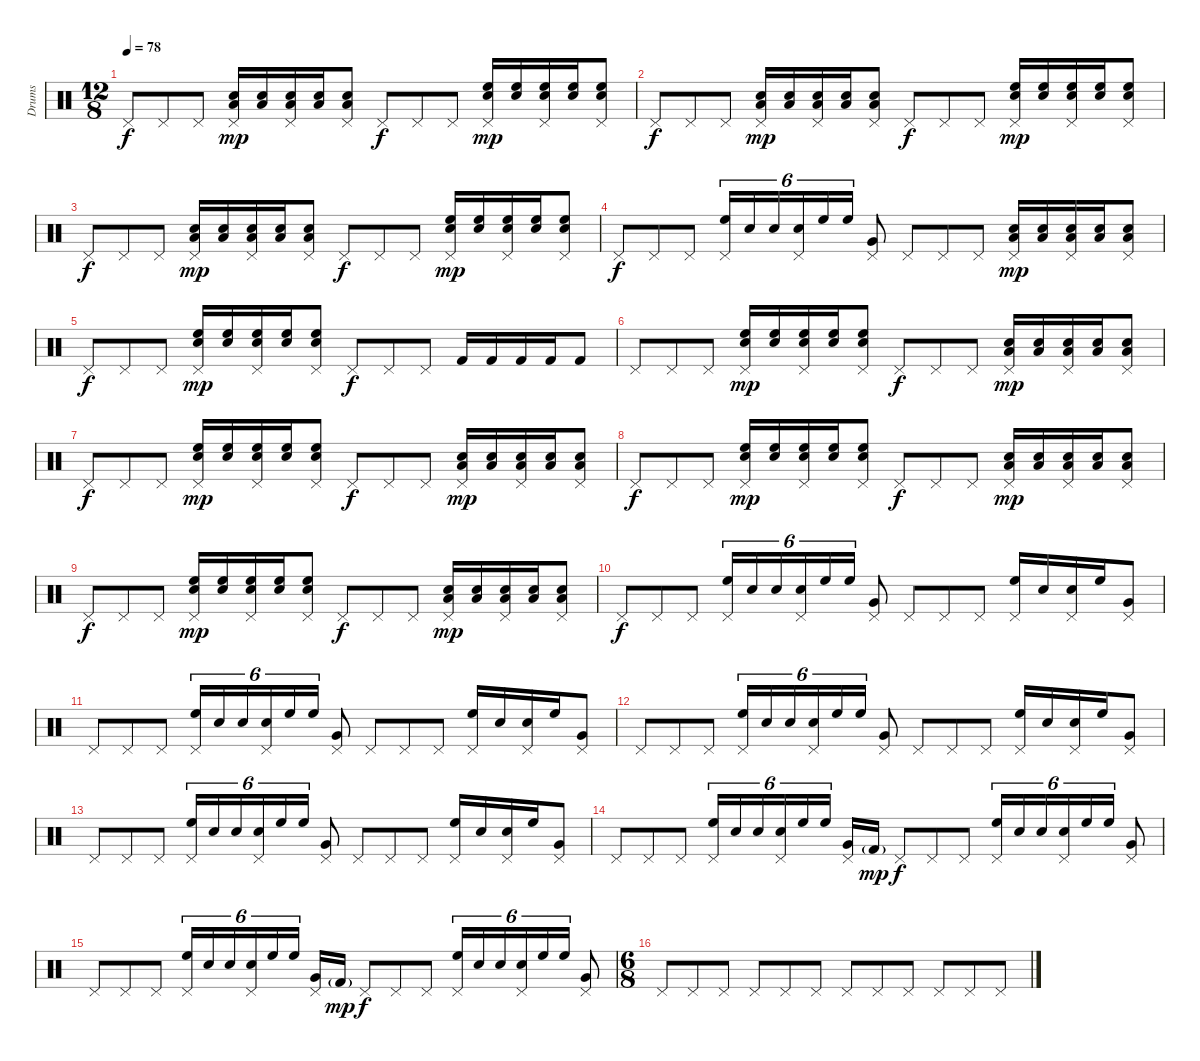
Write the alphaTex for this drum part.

\track ("Drums" "Drums") {instrument percussion}
\staff {score}
\articulation defaults
\ts (12 8)
\tempo 78
\clef neutral
\ks c "Pedal Hi-Hat (hit)".8{dy f} "Pedal Hi-Hat (hit)".8 "Pedal Hi-Hat (hit)".8
("Pedal Hi-Hat (hit)" "Low Floor Tom (hit)" "Snare (hit) 2").16{dy mp} ("Low Floor Tom (hit)" "Snare (hit) 2").16 ("Pedal Hi-Hat (hit)" "Low Floor Tom (hit)" "Snare (hit) 2").16 ("Low Floor Tom (hit)" "Snare (hit) 2").16 ("Pedal Hi-Hat (hit)" "Low Floor Tom (hit)" "Snare (hit) 2").8 "Pedal Hi-Hat (hit)".8{dy f} "Pedal Hi-Hat (hit)".8 "Pedal Hi-Hat (hit)".8 ("Pedal Hi-Hat (hit)" "High Floor Tom (hit)" "Snare (hit) 2").16{dy mp} ("High Floor Tom (hit)" "Snare (hit) 2").16 ("Pedal Hi-Hat (hit)" "High Floor Tom (hit)" "Snare (hit) 2").16 ("High Floor Tom (hit)" "Snare (hit) 2").16 ("Pedal Hi-Hat (hit)" "High Floor Tom (hit)" "Snare (hit) 2").8 |
"Pedal Hi-Hat (hit)".8{dy f} "Pedal Hi-Hat (hit)".8 "Pedal Hi-Hat (hit)".8 ("Pedal Hi-Hat (hit)" "Low Floor Tom (hit)" "Snare (hit) 2").16{dy mp} ("Low Floor Tom (hit)" "Snare (hit) 2").16 ("Pedal Hi-Hat (hit)" "Low Floor Tom (hit)" "Snare (hit) 2").16 ("Low Floor Tom (hit)" "Snare (hit) 2").16 ("Pedal Hi-Hat (hit)" "Low Floor Tom (hit)" "Snare (hit) 2").8 "Pedal Hi-Hat (hit)".8{dy f} "Pedal Hi-Hat (hit)".8 "Pedal Hi-Hat (hit)".8 ("Pedal Hi-Hat (hit)" "High Floor Tom (hit)" "Snare (hit) 2").16{dy mp} ("High Floor Tom (hit)" "Snare (hit) 2").16 ("Pedal Hi-Hat (hit)" "High Floor Tom (hit)" "Snare (hit) 2").16 ("High Floor Tom (hit)" "Snare (hit) 2").16 ("Pedal Hi-Hat (hit)" "High Floor Tom (hit)" "Snare (hit) 2").8 |
"Pedal Hi-Hat (hit)".8{dy f} "Pedal Hi-Hat (hit)".8 "Pedal Hi-Hat (hit)".8 ("Pedal Hi-Hat (hit)" "Low Floor Tom (hit)" "Snare (hit) 2").16{dy mp} ("Low Floor Tom (hit)" "Snare (hit) 2").16 ("Pedal Hi-Hat (hit)" "Low Floor Tom (hit)" "Snare (hit) 2").16 ("Low Floor Tom (hit)" "Snare (hit) 2").16 ("Pedal Hi-Hat (hit)" "Low Floor Tom (hit)" "Snare (hit) 2").8 "Pedal Hi-Hat (hit)".8{dy f} "Pedal Hi-Hat (hit)".8 "Pedal Hi-Hat (hit)".8 ("Pedal Hi-Hat (hit)" "High Floor Tom (hit)" "Snare (hit) 2").16{dy mp} ("High Floor Tom (hit)" "Snare (hit) 2").16 ("Pedal Hi-Hat (hit)" "High Floor Tom (hit)" "Snare (hit) 2").16 ("High Floor Tom (hit)" "Snare (hit) 2").16 ("Pedal Hi-Hat (hit)" "High Floor Tom (hit)" "Snare (hit) 2").8 |
"Pedal Hi-Hat (hit)".8{dy f} "Pedal Hi-Hat (hit)".8 "Pedal Hi-Hat (hit)".8 ("Pedal Hi-Hat (hit)" "High Floor Tom (hit)").16{tu (6 4)} "Snare (hit) 2".16{tu (6 4)} "Snare (hit) 2".16{tu (6 4)} ("Pedal Hi-Hat (hit)" "Snare (hit) 2").16{tu (6 4)} "High Floor Tom (hit)".16{tu (6 4)} "High Floor Tom (hit)".16{tu (6 4)} ("Pedal Hi-Hat (hit)" "Very Low Tom (hit)").8 "Pedal Hi-Hat (hit)".8 "Pedal Hi-Hat (hit)".8 "Pedal Hi-Hat (hit)".8 ("Pedal Hi-Hat (hit)" "Low Floor Tom (hit)" "Snare (hit) 2").16{dy mp} ("Low Floor Tom (hit)" "Snare (hit) 2").16 ("Pedal Hi-Hat (hit)" "Low Floor Tom (hit)" "Snare (hit) 2").16 ("Low Floor Tom (hit)" "Snare (hit) 2").16 ("Pedal Hi-Hat (hit)" "Low Floor Tom (hit)" "Snare (hit) 2").8 |
"Pedal Hi-Hat (hit)".8{dy f} "Pedal Hi-Hat (hit)".8 "Pedal Hi-Hat (hit)".8 ("Pedal Hi-Hat (hit)" "High Floor Tom (hit)" "Snare (hit) 2").16{dy mp} ("High Floor Tom (hit)" "Snare (hit) 2").16 ("Pedal Hi-Hat (hit)" "High Floor Tom (hit)" "Snare (hit) 2").16 ("High Floor Tom (hit)" "Snare (hit) 2").16 ("Pedal Hi-Hat (hit)" "High Floor Tom (hit)" "Snare (hit) 2").8 "Pedal Hi-Hat (hit)".8{dy f} "Pedal Hi-Hat (hit)".8 "Pedal Hi-Hat (hit)".8 "Kick (hit) 2".16 "Kick (hit) 2".16 "Kick (hit) 2".16 "Kick (hit) 2".16 "Kick (hit) 2".8 |
"Pedal Hi-Hat (hit)".8 "Pedal Hi-Hat (hit)".8 "Pedal Hi-Hat (hit)".8 ("Pedal Hi-Hat (hit)" "High Floor Tom (hit)" "Snare (hit) 2").16{dy mp} ("High Floor Tom (hit)" "Snare (hit) 2").16 ("Pedal Hi-Hat (hit)" "High Floor Tom (hit)" "Snare (hit) 2").16 ("High Floor Tom (hit)" "Snare (hit) 2").16 ("Pedal Hi-Hat (hit)" "High Floor Tom (hit)" "Snare (hit) 2").8 "Pedal Hi-Hat (hit)".8{dy f} "Pedal Hi-Hat (hit)".8 "Pedal Hi-Hat (hit)".8 ("Pedal Hi-Hat (hit)" "Low Floor Tom (hit)" "Snare (hit) 2").16{dy mp} ("Low Floor Tom (hit)" "Snare (hit) 2").16 ("Pedal Hi-Hat (hit)" "Low Floor Tom (hit)" "Snare (hit) 2").16 ("Low Floor Tom (hit)" "Snare (hit) 2").16 ("Pedal Hi-Hat (hit)" "Low Floor Tom (hit)" "Snare (hit) 2").8 |
"Pedal Hi-Hat (hit)".8{dy f} "Pedal Hi-Hat (hit)".8 "Pedal Hi-Hat (hit)".8 ("Pedal Hi-Hat (hit)" "High Floor Tom (hit)" "Snare (hit) 2").16{dy mp} ("High Floor Tom (hit)" "Snare (hit) 2").16 ("Pedal Hi-Hat (hit)" "High Floor Tom (hit)" "Snare (hit) 2").16 ("High Floor Tom (hit)" "Snare (hit) 2").16 ("Pedal Hi-Hat (hit)" "High Floor Tom (hit)" "Snare (hit) 2").8 "Pedal Hi-Hat (hit)".8{dy f} "Pedal Hi-Hat (hit)".8 "Pedal Hi-Hat (hit)".8 ("Pedal Hi-Hat (hit)" "Low Floor Tom (hit)" "Snare (hit) 2").16{dy mp} ("Low Floor Tom (hit)" "Snare (hit) 2").16 ("Pedal Hi-Hat (hit)" "Low Floor Tom (hit)" "Snare (hit) 2").16 ("Low Floor Tom (hit)" "Snare (hit) 2").16 ("Pedal Hi-Hat (hit)" "Low Floor Tom (hit)" "Snare (hit) 2").8 |
"Pedal Hi-Hat (hit)".8{dy f} "Pedal Hi-Hat (hit)".8 "Pedal Hi-Hat (hit)".8 ("Pedal Hi-Hat (hit)" "High Floor Tom (hit)" "Snare (hit) 2").16{dy mp} ("High Floor Tom (hit)" "Snare (hit) 2").16 ("Pedal Hi-Hat (hit)" "High Floor Tom (hit)" "Snare (hit) 2").16 ("High Floor Tom (hit)" "Snare (hit) 2").16 ("Pedal Hi-Hat (hit)" "High Floor Tom (hit)" "Snare (hit) 2").8 "Pedal Hi-Hat (hit)".8{dy f} "Pedal Hi-Hat (hit)".8 "Pedal Hi-Hat (hit)".8 ("Pedal Hi-Hat (hit)" "Low Floor Tom (hit)" "Snare (hit) 2").16{dy mp} ("Low Floor Tom (hit)" "Snare (hit) 2").16 ("Pedal Hi-Hat (hit)" "Low Floor Tom (hit)" "Snare (hit) 2").16 ("Low Floor Tom (hit)" "Snare (hit) 2").16 ("Pedal Hi-Hat (hit)" "Low Floor Tom (hit)" "Snare (hit) 2").8 |
"Pedal Hi-Hat (hit)".8{dy f} "Pedal Hi-Hat (hit)".8 "Pedal Hi-Hat (hit)".8 ("Pedal Hi-Hat (hit)" "High Floor Tom (hit)" "Snare (hit) 2").16{dy mp} ("High Floor Tom (hit)" "Snare (hit) 2").16 ("Pedal Hi-Hat (hit)" "High Floor Tom (hit)" "Snare (hit) 2").16 ("High Floor Tom (hit)" "Snare (hit) 2").16 ("Pedal Hi-Hat (hit)" "High Floor Tom (hit)" "Snare (hit) 2").8 "Pedal Hi-Hat (hit)".8{dy f} "Pedal Hi-Hat (hit)".8 "Pedal Hi-Hat (hit)".8 ("Pedal Hi-Hat (hit)" "Low Floor Tom (hit)" "Snare (hit) 2").16{dy mp} ("Low Floor Tom (hit)" "Snare (hit) 2").16 ("Pedal Hi-Hat (hit)" "Low Floor Tom (hit)" "Snare (hit) 2").16 ("Low Floor Tom (hit)" "Snare (hit) 2").16 ("Pedal Hi-Hat (hit)" "Low Floor Tom (hit)" "Snare (hit) 2").8 |
"Pedal Hi-Hat (hit)".8{dy f} "Pedal Hi-Hat (hit)".8 "Pedal Hi-Hat (hit)".8 ("Pedal Hi-Hat (hit)" "High Floor Tom (hit)").16{tu (6 4)} "Snare (hit) 2".16{tu (6 4)} "Snare (hit) 2".16{tu (6 4)} ("Pedal Hi-Hat (hit)" "Snare (hit) 2").16{tu (6 4)} "High Floor Tom (hit)".16{tu (6 4)} "High Floor Tom (hit)".16{tu (6 4)} ("Pedal Hi-Hat (hit)" "Very Low Tom (hit)").8 "Pedal Hi-Hat (hit)".8 "Pedal Hi-Hat (hit)".8 "Pedal Hi-Hat (hit)".8 ("Pedal Hi-Hat (hit)" "High Floor Tom (hit)").16 "Snare (hit) 2".16 ("Pedal Hi-Hat (hit)" "Snare (hit) 2").16 "High Floor Tom (hit)".16 ("Pedal Hi-Hat (hit)" "Very Low Tom (hit)").8 |
"Pedal Hi-Hat (hit)".8 "Pedal Hi-Hat (hit)".8 "Pedal Hi-Hat (hit)".8 ("Pedal Hi-Hat (hit)" "High Floor Tom (hit)").16{tu (6 4)} "Snare (hit) 2".16{tu (6 4)} "Snare (hit) 2".16{tu (6 4)} ("Pedal Hi-Hat (hit)" "Snare (hit) 2").16{tu (6 4)} "High Floor Tom (hit)".16{tu (6 4)} "High Floor Tom (hit)".16{tu (6 4)} ("Pedal Hi-Hat (hit)" "Very Low Tom (hit)").8 "Pedal Hi-Hat (hit)".8 "Pedal Hi-Hat (hit)".8 "Pedal Hi-Hat (hit)".8 ("Pedal Hi-Hat (hit)" "High Floor Tom (hit)").16 "Snare (hit) 2".16 ("Pedal Hi-Hat (hit)" "Snare (hit) 2").16 "High Floor Tom (hit)".16 ("Pedal Hi-Hat (hit)" "Very Low Tom (hit)").8 |
"Pedal Hi-Hat (hit)".8 "Pedal Hi-Hat (hit)".8 "Pedal Hi-Hat (hit)".8 ("Pedal Hi-Hat (hit)" "High Floor Tom (hit)").16{tu (6 4)} "Snare (hit) 2".16{tu (6 4)} "Snare (hit) 2".16{tu (6 4)} ("Pedal Hi-Hat (hit)" "Snare (hit) 2").16{tu (6 4)} "High Floor Tom (hit)".16{tu (6 4)} "High Floor Tom (hit)".16{tu (6 4)} ("Pedal Hi-Hat (hit)" "Very Low Tom (hit)").8 "Pedal Hi-Hat (hit)".8 "Pedal Hi-Hat (hit)".8 "Pedal Hi-Hat (hit)".8 ("Pedal Hi-Hat (hit)" "High Floor Tom (hit)").16 "Snare (hit) 2".16 ("Pedal Hi-Hat (hit)" "Snare (hit) 2").16 "High Floor Tom (hit)".16 ("Pedal Hi-Hat (hit)" "Very Low Tom (hit)").8 |
"Pedal Hi-Hat (hit)".8 "Pedal Hi-Hat (hit)".8 "Pedal Hi-Hat (hit)".8 ("Pedal Hi-Hat (hit)" "High Floor Tom (hit)").16{tu (6 4)} "Snare (hit) 2".16{tu (6 4)} "Snare (hit) 2".16{tu (6 4)} ("Pedal Hi-Hat (hit)" "Snare (hit) 2").16{tu (6 4)} "High Floor Tom (hit)".16{tu (6 4)} "High Floor Tom (hit)".16{tu (6 4)} ("Pedal Hi-Hat (hit)" "Very Low Tom (hit)").8 "Pedal Hi-Hat (hit)".8 "Pedal Hi-Hat (hit)".8 "Pedal Hi-Hat (hit)".8 ("Pedal Hi-Hat (hit)" "High Floor Tom (hit)").16 "Snare (hit) 2".16 ("Pedal Hi-Hat (hit)" "Snare (hit) 2").16 "High Floor Tom (hit)".16 ("Pedal Hi-Hat (hit)" "Very Low Tom (hit)").8 |
"Pedal Hi-Hat (hit)".8 "Pedal Hi-Hat (hit)".8 "Pedal Hi-Hat (hit)".8 ("Pedal Hi-Hat (hit)" "High Floor Tom (hit)").16{tu (6 4)} "Snare (hit) 2".16{tu (6 4)} "Snare (hit) 2".16{tu (6 4)} ("Pedal Hi-Hat (hit)" "Snare (hit) 2").16{tu (6 4)} "High Floor Tom (hit)".16{tu (6 4)} "High Floor Tom (hit)".16{tu (6 4)} ("Pedal Hi-Hat (hit)" "Very Low Tom (hit)").16 "Kick (hit) 2"{g}.16{dy mp} "Pedal Hi-Hat (hit)".8{dy f} "Pedal Hi-Hat (hit)".8 "Pedal Hi-Hat (hit)".8 ("Pedal Hi-Hat (hit)" "High Floor Tom (hit)").16{tu (6 4)} "Snare (hit) 2".16{tu (6 4)} "Snare (hit) 2".16{tu (6 4)} ("Pedal Hi-Hat (hit)" "Snare (hit) 2").16{tu (6 4)} "High Floor Tom (hit)".16{tu (6 4)} "High Floor Tom (hit)".16{tu (6 4)} ("Pedal Hi-Hat (hit)" "Very Low Tom (hit)").8 |
"Pedal Hi-Hat (hit)".8 "Pedal Hi-Hat (hit)".8 "Pedal Hi-Hat (hit)".8 ("Pedal Hi-Hat (hit)" "High Floor Tom (hit)").16{tu (6 4)} "Snare (hit) 2".16{tu (6 4)} "Snare (hit) 2".16{tu (6 4)} ("Pedal Hi-Hat (hit)" "Snare (hit) 2").16{tu (6 4)} "High Floor Tom (hit)".16{tu (6 4)} "High Floor Tom (hit)".16{tu (6 4)} ("Pedal Hi-Hat (hit)" "Very Low Tom (hit)").16 "Kick (hit) 2"{g}.16{dy mp} "Pedal Hi-Hat (hit)".8{dy f} "Pedal Hi-Hat (hit)".8 "Pedal Hi-Hat (hit)".8 ("Pedal Hi-Hat (hit)" "High Floor Tom (hit)").16{tu (6 4)} "Snare (hit) 2".16{tu (6 4)} "Snare (hit) 2".16{tu (6 4)} ("Pedal Hi-Hat (hit)" "Snare (hit) 2").16{tu (6 4)} "High Floor Tom (hit)".16{tu (6 4)} "High Floor Tom (hit)".16{tu (6 4)} ("Pedal Hi-Hat (hit)" "Very Low Tom (hit)").8 |
\ts (6 8)
"Pedal Hi-Hat (hit)".8 "Pedal Hi-Hat (hit)".8 "Pedal Hi-Hat (hit)".8 "Pedal Hi-Hat (hit)".8 "Pedal Hi-Hat (hit)".8 "Pedal Hi-Hat (hit)".8 "Pedal Hi-Hat (hit)".8 "Pedal Hi-Hat (hit)".8 "Pedal Hi-Hat (hit)".8 "Pedal Hi-Hat (hit)".8 "Pedal Hi-Hat (hit)".8 "Pedal Hi-Hat (hit)".8
